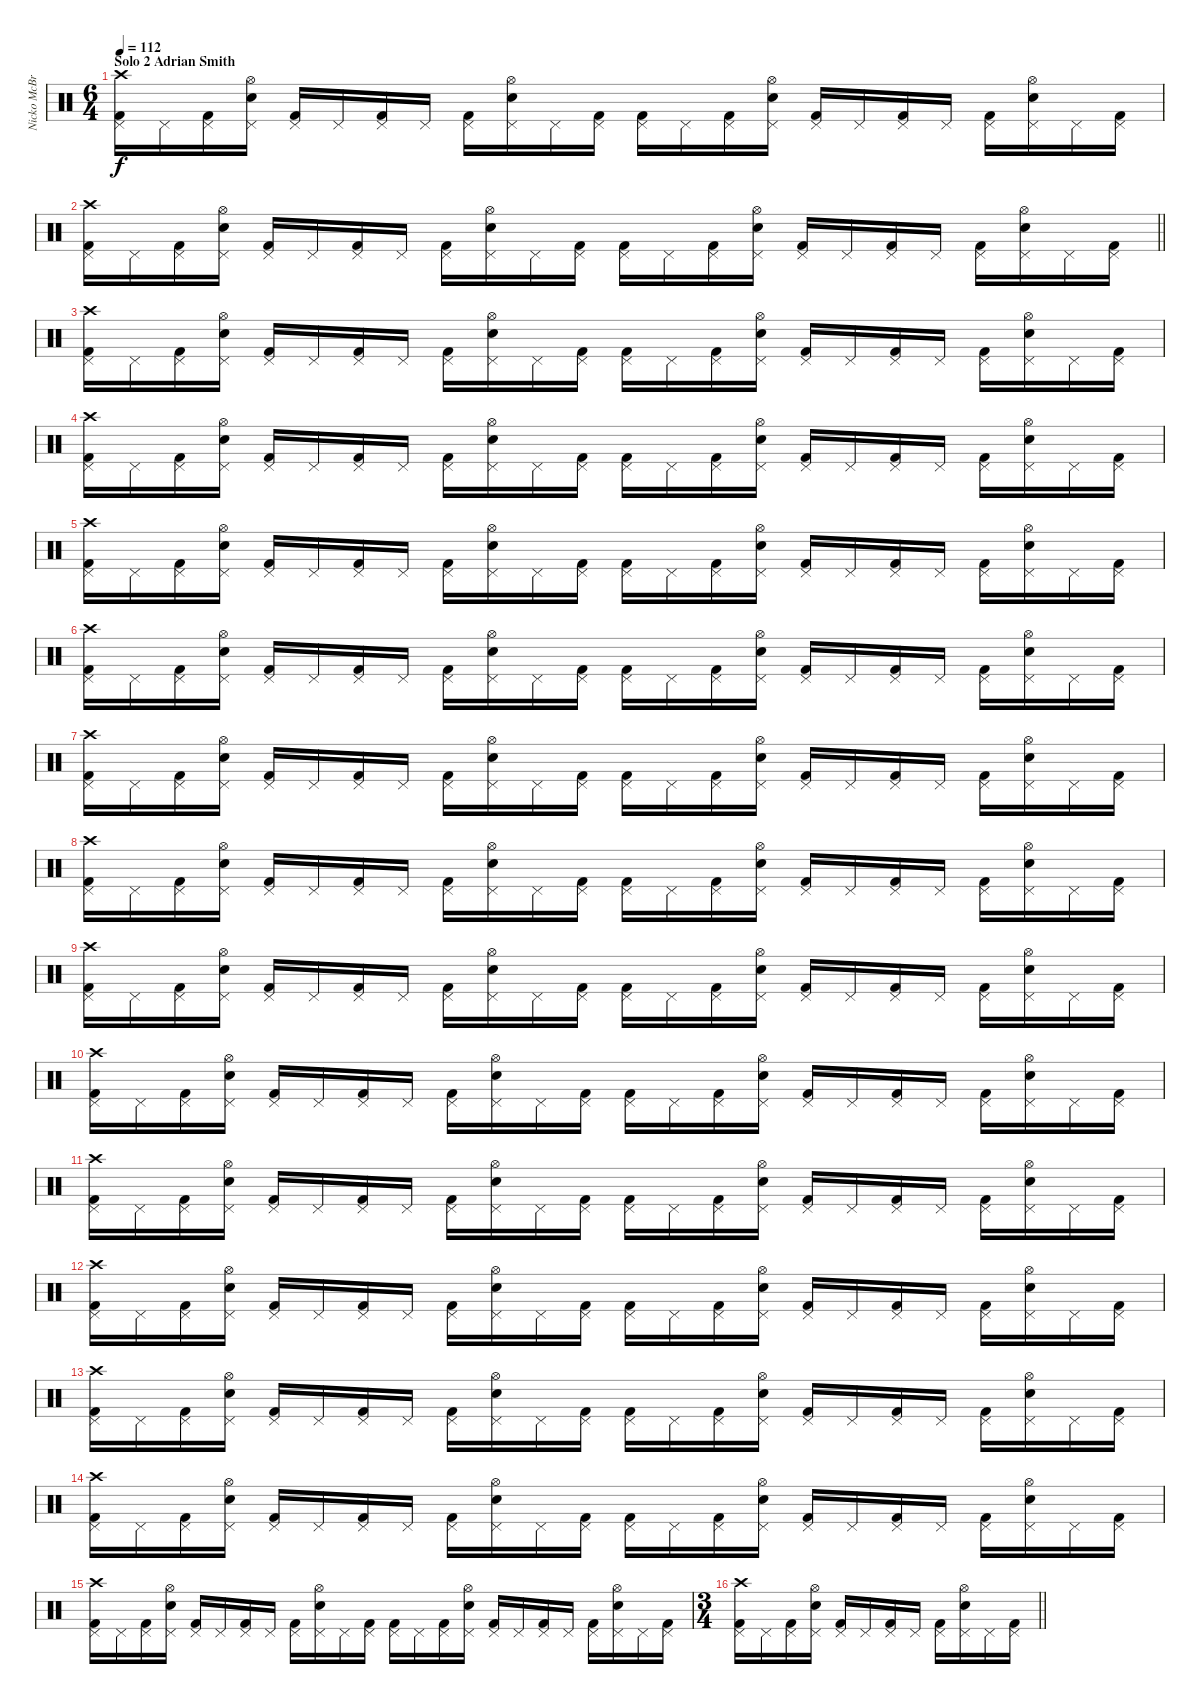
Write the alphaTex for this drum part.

\track ("Nicko McBrain" "Nicko McBr") {instrument percussion}
\staff {score}
\articulation defaults
\ts (6 4)
\section ("" "Solo 2 Adrian Smith")
\tempo 112
\clef neutral
\ks c
("Kick (hit) 2" "Pedal Hi-Hat (hit)" "Crash high (hit)").16{dy f} "Pedal Hi-Hat (hit)".16 ("Kick (hit) 2" "Pedal Hi-Hat (hit)").16 ("Snare (hit) 2" "Pedal Hi-Hat (hit)" "Hi-Hat (open)").16 ("Kick (hit) 2" "Pedal Hi-Hat (hit)").16 "Pedal Hi-Hat (hit)".16 ("Kick (hit) 2" "Pedal Hi-Hat (hit)").16 "Pedal Hi-Hat (hit)".16 ("Kick (hit) 2" "Pedal Hi-Hat (hit)").16 ("Snare (hit) 2" "Pedal Hi-Hat (hit)" "Hi-Hat (open)").16 "Pedal Hi-Hat (hit)".16 ("Kick (hit) 2" "Pedal Hi-Hat (hit)").16 ("Kick (hit) 2" "Pedal Hi-Hat (hit)").16 "Pedal Hi-Hat (hit)".16 ("Kick (hit) 2" "Pedal Hi-Hat (hit)").16 ("Snare (hit) 2" "Pedal Hi-Hat (hit)" "Hi-Hat (open)").16 ("Kick (hit) 2" "Pedal Hi-Hat (hit)").16 "Pedal Hi-Hat (hit)".16 ("Kick (hit) 2" "Pedal Hi-Hat (hit)").16 "Pedal Hi-Hat (hit)".16 ("Kick (hit) 2" "Pedal Hi-Hat (hit)").16 ("Snare (hit) 2" "Pedal Hi-Hat (hit)" "Hi-Hat (open)").16 "Pedal Hi-Hat (hit)".16 ("Kick (hit) 2" "Pedal Hi-Hat (hit)").16 |
\barLineRight lightlight
("Kick (hit) 2" "Pedal Hi-Hat (hit)" "Crash high (hit)").16 "Pedal Hi-Hat (hit)".16 ("Kick (hit) 2" "Pedal Hi-Hat (hit)").16 ("Snare (hit) 2" "Pedal Hi-Hat (hit)" "Hi-Hat (open)").16 ("Kick (hit) 2" "Pedal Hi-Hat (hit)").16 "Pedal Hi-Hat (hit)".16 ("Kick (hit) 2" "Pedal Hi-Hat (hit)").16 "Pedal Hi-Hat (hit)".16 ("Kick (hit) 2" "Pedal Hi-Hat (hit)").16 ("Snare (hit) 2" "Pedal Hi-Hat (hit)" "Hi-Hat (open)").16 "Pedal Hi-Hat (hit)".16 ("Kick (hit) 2" "Pedal Hi-Hat (hit)").16 ("Kick (hit) 2" "Pedal Hi-Hat (hit)").16 "Pedal Hi-Hat (hit)".16 ("Kick (hit) 2" "Pedal Hi-Hat (hit)").16 ("Snare (hit) 2" "Pedal Hi-Hat (hit)" "Hi-Hat (open)").16 ("Kick (hit) 2" "Pedal Hi-Hat (hit)").16 "Pedal Hi-Hat (hit)".16 ("Kick (hit) 2" "Pedal Hi-Hat (hit)").16 "Pedal Hi-Hat (hit)".16 ("Kick (hit) 2" "Pedal Hi-Hat (hit)").16 ("Snare (hit) 2" "Pedal Hi-Hat (hit)" "Hi-Hat (open)").16 "Pedal Hi-Hat (hit)".16 ("Kick (hit) 2" "Pedal Hi-Hat (hit)").16 |
("Kick (hit) 2" "Pedal Hi-Hat (hit)" "Crash high (hit)").16 "Pedal Hi-Hat (hit)".16 ("Kick (hit) 2" "Pedal Hi-Hat (hit)").16 ("Snare (hit) 2" "Pedal Hi-Hat (hit)" "Hi-Hat (open)").16 ("Kick (hit) 2" "Pedal Hi-Hat (hit)").16 "Pedal Hi-Hat (hit)".16 ("Kick (hit) 2" "Pedal Hi-Hat (hit)").16 "Pedal Hi-Hat (hit)".16 ("Kick (hit) 2" "Pedal Hi-Hat (hit)").16 ("Snare (hit) 2" "Pedal Hi-Hat (hit)" "Hi-Hat (open)").16 "Pedal Hi-Hat (hit)".16 ("Kick (hit) 2" "Pedal Hi-Hat (hit)").16 ("Kick (hit) 2" "Pedal Hi-Hat (hit)").16 "Pedal Hi-Hat (hit)".16 ("Kick (hit) 2" "Pedal Hi-Hat (hit)").16 ("Snare (hit) 2" "Pedal Hi-Hat (hit)" "Hi-Hat (open)").16 ("Kick (hit) 2" "Pedal Hi-Hat (hit)").16 "Pedal Hi-Hat (hit)".16 ("Kick (hit) 2" "Pedal Hi-Hat (hit)").16 "Pedal Hi-Hat (hit)".16 ("Kick (hit) 2" "Pedal Hi-Hat (hit)").16 ("Snare (hit) 2" "Pedal Hi-Hat (hit)" "Hi-Hat (open)").16 "Pedal Hi-Hat (hit)".16 ("Kick (hit) 2" "Pedal Hi-Hat (hit)").16 |
("Kick (hit) 2" "Pedal Hi-Hat (hit)" "Crash high (hit)").16 "Pedal Hi-Hat (hit)".16 ("Kick (hit) 2" "Pedal Hi-Hat (hit)").16 ("Snare (hit) 2" "Pedal Hi-Hat (hit)" "Hi-Hat (open)").16 ("Kick (hit) 2" "Pedal Hi-Hat (hit)").16 "Pedal Hi-Hat (hit)".16 ("Kick (hit) 2" "Pedal Hi-Hat (hit)").16 "Pedal Hi-Hat (hit)".16 ("Kick (hit) 2" "Pedal Hi-Hat (hit)").16 ("Snare (hit) 2" "Pedal Hi-Hat (hit)" "Hi-Hat (open)").16 "Pedal Hi-Hat (hit)".16 ("Kick (hit) 2" "Pedal Hi-Hat (hit)").16 ("Kick (hit) 2" "Pedal Hi-Hat (hit)").16 "Pedal Hi-Hat (hit)".16 ("Kick (hit) 2" "Pedal Hi-Hat (hit)").16 ("Snare (hit) 2" "Pedal Hi-Hat (hit)" "Hi-Hat (open)").16 ("Kick (hit) 2" "Pedal Hi-Hat (hit)").16 "Pedal Hi-Hat (hit)".16 ("Kick (hit) 2" "Pedal Hi-Hat (hit)").16 "Pedal Hi-Hat (hit)".16 ("Kick (hit) 2" "Pedal Hi-Hat (hit)").16 ("Snare (hit) 2" "Pedal Hi-Hat (hit)" "Hi-Hat (open)").16 "Pedal Hi-Hat (hit)".16 ("Kick (hit) 2" "Pedal Hi-Hat (hit)").16 |
("Kick (hit) 2" "Pedal Hi-Hat (hit)" "Crash high (hit)").16 "Pedal Hi-Hat (hit)".16 ("Kick (hit) 2" "Pedal Hi-Hat (hit)").16 ("Snare (hit) 2" "Pedal Hi-Hat (hit)" "Hi-Hat (open)").16 ("Kick (hit) 2" "Pedal Hi-Hat (hit)").16 "Pedal Hi-Hat (hit)".16 ("Kick (hit) 2" "Pedal Hi-Hat (hit)").16 "Pedal Hi-Hat (hit)".16 ("Kick (hit) 2" "Pedal Hi-Hat (hit)").16 ("Snare (hit) 2" "Pedal Hi-Hat (hit)" "Hi-Hat (open)").16 "Pedal Hi-Hat (hit)".16 ("Kick (hit) 2" "Pedal Hi-Hat (hit)").16 ("Kick (hit) 2" "Pedal Hi-Hat (hit)").16 "Pedal Hi-Hat (hit)".16 ("Kick (hit) 2" "Pedal Hi-Hat (hit)").16 ("Snare (hit) 2" "Pedal Hi-Hat (hit)" "Hi-Hat (open)").16 ("Kick (hit) 2" "Pedal Hi-Hat (hit)").16 "Pedal Hi-Hat (hit)".16 ("Kick (hit) 2" "Pedal Hi-Hat (hit)").16 "Pedal Hi-Hat (hit)".16 ("Kick (hit) 2" "Pedal Hi-Hat (hit)").16 ("Snare (hit) 2" "Pedal Hi-Hat (hit)" "Hi-Hat (open)").16 "Pedal Hi-Hat (hit)".16 ("Kick (hit) 2" "Pedal Hi-Hat (hit)").16 |
("Kick (hit) 2" "Pedal Hi-Hat (hit)" "Crash high (hit)").16 "Pedal Hi-Hat (hit)".16 ("Kick (hit) 2" "Pedal Hi-Hat (hit)").16 ("Snare (hit) 2" "Pedal Hi-Hat (hit)" "Hi-Hat (open)").16 ("Kick (hit) 2" "Pedal Hi-Hat (hit)").16 "Pedal Hi-Hat (hit)".16 ("Kick (hit) 2" "Pedal Hi-Hat (hit)").16 "Pedal Hi-Hat (hit)".16 ("Kick (hit) 2" "Pedal Hi-Hat (hit)").16 ("Snare (hit) 2" "Pedal Hi-Hat (hit)" "Hi-Hat (open)").16 "Pedal Hi-Hat (hit)".16 ("Kick (hit) 2" "Pedal Hi-Hat (hit)").16 ("Kick (hit) 2" "Pedal Hi-Hat (hit)").16 "Pedal Hi-Hat (hit)".16 ("Kick (hit) 2" "Pedal Hi-Hat (hit)").16 ("Snare (hit) 2" "Pedal Hi-Hat (hit)" "Hi-Hat (open)").16 ("Kick (hit) 2" "Pedal Hi-Hat (hit)").16 "Pedal Hi-Hat (hit)".16 ("Kick (hit) 2" "Pedal Hi-Hat (hit)").16 "Pedal Hi-Hat (hit)".16 ("Kick (hit) 2" "Pedal Hi-Hat (hit)").16 ("Snare (hit) 2" "Pedal Hi-Hat (hit)" "Hi-Hat (open)").16 "Pedal Hi-Hat (hit)".16 ("Kick (hit) 2" "Pedal Hi-Hat (hit)").16 |
("Kick (hit) 2" "Pedal Hi-Hat (hit)" "Crash high (hit)").16 "Pedal Hi-Hat (hit)".16 ("Kick (hit) 2" "Pedal Hi-Hat (hit)").16 ("Snare (hit) 2" "Pedal Hi-Hat (hit)" "Hi-Hat (open)").16 ("Kick (hit) 2" "Pedal Hi-Hat (hit)").16 "Pedal Hi-Hat (hit)".16 ("Kick (hit) 2" "Pedal Hi-Hat (hit)").16 "Pedal Hi-Hat (hit)".16 ("Kick (hit) 2" "Pedal Hi-Hat (hit)").16 ("Snare (hit) 2" "Pedal Hi-Hat (hit)" "Hi-Hat (open)").16 "Pedal Hi-Hat (hit)".16 ("Kick (hit) 2" "Pedal Hi-Hat (hit)").16 ("Kick (hit) 2" "Pedal Hi-Hat (hit)").16 "Pedal Hi-Hat (hit)".16 ("Kick (hit) 2" "Pedal Hi-Hat (hit)").16 ("Snare (hit) 2" "Pedal Hi-Hat (hit)" "Hi-Hat (open)").16 ("Kick (hit) 2" "Pedal Hi-Hat (hit)").16 "Pedal Hi-Hat (hit)".16 ("Kick (hit) 2" "Pedal Hi-Hat (hit)").16 "Pedal Hi-Hat (hit)".16 ("Kick (hit) 2" "Pedal Hi-Hat (hit)").16 ("Snare (hit) 2" "Pedal Hi-Hat (hit)" "Hi-Hat (open)").16 "Pedal Hi-Hat (hit)".16 ("Kick (hit) 2" "Pedal Hi-Hat (hit)").16 |
("Kick (hit) 2" "Pedal Hi-Hat (hit)" "Crash high (hit)").16 "Pedal Hi-Hat (hit)".16 ("Kick (hit) 2" "Pedal Hi-Hat (hit)").16 ("Snare (hit) 2" "Pedal Hi-Hat (hit)" "Hi-Hat (open)").16 ("Kick (hit) 2" "Pedal Hi-Hat (hit)").16 "Pedal Hi-Hat (hit)".16 ("Kick (hit) 2" "Pedal Hi-Hat (hit)").16 "Pedal Hi-Hat (hit)".16 ("Kick (hit) 2" "Pedal Hi-Hat (hit)").16 ("Snare (hit) 2" "Pedal Hi-Hat (hit)" "Hi-Hat (open)").16 "Pedal Hi-Hat (hit)".16 ("Kick (hit) 2" "Pedal Hi-Hat (hit)").16 ("Kick (hit) 2" "Pedal Hi-Hat (hit)").16 "Pedal Hi-Hat (hit)".16 ("Kick (hit) 2" "Pedal Hi-Hat (hit)").16 ("Snare (hit) 2" "Pedal Hi-Hat (hit)" "Hi-Hat (open)").16 ("Kick (hit) 2" "Pedal Hi-Hat (hit)").16 "Pedal Hi-Hat (hit)".16 ("Kick (hit) 2" "Pedal Hi-Hat (hit)").16 "Pedal Hi-Hat (hit)".16 ("Kick (hit) 2" "Pedal Hi-Hat (hit)").16 ("Snare (hit) 2" "Pedal Hi-Hat (hit)" "Hi-Hat (open)").16 "Pedal Hi-Hat (hit)".16 ("Kick (hit) 2" "Pedal Hi-Hat (hit)").16 |
("Kick (hit) 2" "Pedal Hi-Hat (hit)" "Crash high (hit)").16 "Pedal Hi-Hat (hit)".16 ("Kick (hit) 2" "Pedal Hi-Hat (hit)").16 ("Snare (hit) 2" "Pedal Hi-Hat (hit)" "Hi-Hat (open)").16 ("Kick (hit) 2" "Pedal Hi-Hat (hit)").16 "Pedal Hi-Hat (hit)".16 ("Kick (hit) 2" "Pedal Hi-Hat (hit)").16 "Pedal Hi-Hat (hit)".16 ("Kick (hit) 2" "Pedal Hi-Hat (hit)").16 ("Snare (hit) 2" "Pedal Hi-Hat (hit)" "Hi-Hat (open)").16 "Pedal Hi-Hat (hit)".16 ("Kick (hit) 2" "Pedal Hi-Hat (hit)").16 ("Kick (hit) 2" "Pedal Hi-Hat (hit)").16 "Pedal Hi-Hat (hit)".16 ("Kick (hit) 2" "Pedal Hi-Hat (hit)").16 ("Snare (hit) 2" "Pedal Hi-Hat (hit)" "Hi-Hat (open)").16 ("Kick (hit) 2" "Pedal Hi-Hat (hit)").16 "Pedal Hi-Hat (hit)".16 ("Kick (hit) 2" "Pedal Hi-Hat (hit)").16 "Pedal Hi-Hat (hit)".16 ("Kick (hit) 2" "Pedal Hi-Hat (hit)").16 ("Snare (hit) 2" "Pedal Hi-Hat (hit)" "Hi-Hat (open)").16 "Pedal Hi-Hat (hit)".16 ("Kick (hit) 2" "Pedal Hi-Hat (hit)").16 |
("Kick (hit) 2" "Pedal Hi-Hat (hit)" "Crash high (hit)").16 "Pedal Hi-Hat (hit)".16 ("Kick (hit) 2" "Pedal Hi-Hat (hit)").16 ("Snare (hit) 2" "Pedal Hi-Hat (hit)" "Hi-Hat (open)").16 ("Kick (hit) 2" "Pedal Hi-Hat (hit)").16 "Pedal Hi-Hat (hit)".16 ("Kick (hit) 2" "Pedal Hi-Hat (hit)").16 "Pedal Hi-Hat (hit)".16 ("Kick (hit) 2" "Pedal Hi-Hat (hit)").16 ("Snare (hit) 2" "Pedal Hi-Hat (hit)" "Hi-Hat (open)").16 "Pedal Hi-Hat (hit)".16 ("Kick (hit) 2" "Pedal Hi-Hat (hit)").16 ("Kick (hit) 2" "Pedal Hi-Hat (hit)").16 "Pedal Hi-Hat (hit)".16 ("Kick (hit) 2" "Pedal Hi-Hat (hit)").16 ("Snare (hit) 2" "Pedal Hi-Hat (hit)" "Hi-Hat (open)").16 ("Kick (hit) 2" "Pedal Hi-Hat (hit)").16 "Pedal Hi-Hat (hit)".16 ("Kick (hit) 2" "Pedal Hi-Hat (hit)").16 "Pedal Hi-Hat (hit)".16 ("Kick (hit) 2" "Pedal Hi-Hat (hit)").16 ("Snare (hit) 2" "Pedal Hi-Hat (hit)" "Hi-Hat (open)").16 "Pedal Hi-Hat (hit)".16 ("Kick (hit) 2" "Pedal Hi-Hat (hit)").16 |
("Kick (hit) 2" "Pedal Hi-Hat (hit)" "Crash high (hit)").16 "Pedal Hi-Hat (hit)".16 ("Kick (hit) 2" "Pedal Hi-Hat (hit)").16 ("Snare (hit) 2" "Pedal Hi-Hat (hit)" "Hi-Hat (open)").16 ("Kick (hit) 2" "Pedal Hi-Hat (hit)").16 "Pedal Hi-Hat (hit)".16 ("Kick (hit) 2" "Pedal Hi-Hat (hit)").16 "Pedal Hi-Hat (hit)".16 ("Kick (hit) 2" "Pedal Hi-Hat (hit)").16 ("Snare (hit) 2" "Pedal Hi-Hat (hit)" "Hi-Hat (open)").16 "Pedal Hi-Hat (hit)".16 ("Kick (hit) 2" "Pedal Hi-Hat (hit)").16 ("Kick (hit) 2" "Pedal Hi-Hat (hit)").16 "Pedal Hi-Hat (hit)".16 ("Kick (hit) 2" "Pedal Hi-Hat (hit)").16 ("Snare (hit) 2" "Pedal Hi-Hat (hit)" "Hi-Hat (open)").16 ("Kick (hit) 2" "Pedal Hi-Hat (hit)").16 "Pedal Hi-Hat (hit)".16 ("Kick (hit) 2" "Pedal Hi-Hat (hit)").16 "Pedal Hi-Hat (hit)".16 ("Kick (hit) 2" "Pedal Hi-Hat (hit)").16 ("Snare (hit) 2" "Pedal Hi-Hat (hit)" "Hi-Hat (open)").16 "Pedal Hi-Hat (hit)".16 ("Kick (hit) 2" "Pedal Hi-Hat (hit)").16 |
("Kick (hit) 2" "Pedal Hi-Hat (hit)" "Crash high (hit)").16 "Pedal Hi-Hat (hit)".16 ("Kick (hit) 2" "Pedal Hi-Hat (hit)").16 ("Snare (hit) 2" "Pedal Hi-Hat (hit)" "Hi-Hat (open)").16 ("Kick (hit) 2" "Pedal Hi-Hat (hit)").16 "Pedal Hi-Hat (hit)".16 ("Kick (hit) 2" "Pedal Hi-Hat (hit)").16 "Pedal Hi-Hat (hit)".16 ("Kick (hit) 2" "Pedal Hi-Hat (hit)").16 ("Snare (hit) 2" "Pedal Hi-Hat (hit)" "Hi-Hat (open)").16 "Pedal Hi-Hat (hit)".16 ("Kick (hit) 2" "Pedal Hi-Hat (hit)").16 ("Kick (hit) 2" "Pedal Hi-Hat (hit)").16 "Pedal Hi-Hat (hit)".16 ("Kick (hit) 2" "Pedal Hi-Hat (hit)").16 ("Snare (hit) 2" "Pedal Hi-Hat (hit)" "Hi-Hat (open)").16 ("Kick (hit) 2" "Pedal Hi-Hat (hit)").16 "Pedal Hi-Hat (hit)".16 ("Kick (hit) 2" "Pedal Hi-Hat (hit)").16 "Pedal Hi-Hat (hit)".16 ("Kick (hit) 2" "Pedal Hi-Hat (hit)").16 ("Snare (hit) 2" "Pedal Hi-Hat (hit)" "Hi-Hat (open)").16 "Pedal Hi-Hat (hit)".16 ("Kick (hit) 2" "Pedal Hi-Hat (hit)").16 |
("Kick (hit) 2" "Pedal Hi-Hat (hit)" "Crash high (hit)").16 "Pedal Hi-Hat (hit)".16 ("Kick (hit) 2" "Pedal Hi-Hat (hit)").16 ("Snare (hit) 2" "Pedal Hi-Hat (hit)" "Hi-Hat (open)").16 ("Kick (hit) 2" "Pedal Hi-Hat (hit)").16 "Pedal Hi-Hat (hit)".16 ("Kick (hit) 2" "Pedal Hi-Hat (hit)").16 "Pedal Hi-Hat (hit)".16 ("Kick (hit) 2" "Pedal Hi-Hat (hit)").16 ("Snare (hit) 2" "Pedal Hi-Hat (hit)" "Hi-Hat (open)").16 "Pedal Hi-Hat (hit)".16 ("Kick (hit) 2" "Pedal Hi-Hat (hit)").16 ("Kick (hit) 2" "Pedal Hi-Hat (hit)").16 "Pedal Hi-Hat (hit)".16 ("Kick (hit) 2" "Pedal Hi-Hat (hit)").16 ("Snare (hit) 2" "Pedal Hi-Hat (hit)" "Hi-Hat (open)").16 ("Kick (hit) 2" "Pedal Hi-Hat (hit)").16 "Pedal Hi-Hat (hit)".16 ("Kick (hit) 2" "Pedal Hi-Hat (hit)").16 "Pedal Hi-Hat (hit)".16 ("Kick (hit) 2" "Pedal Hi-Hat (hit)").16 ("Snare (hit) 2" "Pedal Hi-Hat (hit)" "Hi-Hat (open)").16 "Pedal Hi-Hat (hit)".16 ("Kick (hit) 2" "Pedal Hi-Hat (hit)").16 |
("Kick (hit) 2" "Pedal Hi-Hat (hit)" "Crash high (hit)").16 "Pedal Hi-Hat (hit)".16 ("Kick (hit) 2" "Pedal Hi-Hat (hit)").16 ("Snare (hit) 2" "Pedal Hi-Hat (hit)" "Hi-Hat (open)").16 ("Kick (hit) 2" "Pedal Hi-Hat (hit)").16 "Pedal Hi-Hat (hit)".16 ("Kick (hit) 2" "Pedal Hi-Hat (hit)").16 "Pedal Hi-Hat (hit)".16 ("Kick (hit) 2" "Pedal Hi-Hat (hit)").16 ("Snare (hit) 2" "Pedal Hi-Hat (hit)" "Hi-Hat (open)").16 "Pedal Hi-Hat (hit)".16 ("Kick (hit) 2" "Pedal Hi-Hat (hit)").16 ("Kick (hit) 2" "Pedal Hi-Hat (hit)").16 "Pedal Hi-Hat (hit)".16 ("Kick (hit) 2" "Pedal Hi-Hat (hit)").16 ("Snare (hit) 2" "Pedal Hi-Hat (hit)" "Hi-Hat (open)").16 ("Kick (hit) 2" "Pedal Hi-Hat (hit)").16 "Pedal Hi-Hat (hit)".16 ("Kick (hit) 2" "Pedal Hi-Hat (hit)").16 "Pedal Hi-Hat (hit)".16 ("Kick (hit) 2" "Pedal Hi-Hat (hit)").16 ("Snare (hit) 2" "Pedal Hi-Hat (hit)" "Hi-Hat (open)").16 "Pedal Hi-Hat (hit)".16 ("Kick (hit) 2" "Pedal Hi-Hat (hit)").16 |
("Kick (hit) 2" "Pedal Hi-Hat (hit)" "Crash high (hit)").16 "Pedal Hi-Hat (hit)".16 ("Kick (hit) 2" "Pedal Hi-Hat (hit)").16 ("Snare (hit) 2" "Pedal Hi-Hat (hit)" "Hi-Hat (open)").16 ("Kick (hit) 2" "Pedal Hi-Hat (hit)").16 "Pedal Hi-Hat (hit)".16 ("Kick (hit) 2" "Pedal Hi-Hat (hit)").16 "Pedal Hi-Hat (hit)".16 ("Kick (hit) 2" "Pedal Hi-Hat (hit)").16 ("Snare (hit) 2" "Pedal Hi-Hat (hit)" "Hi-Hat (open)").16 "Pedal Hi-Hat (hit)".16 ("Kick (hit) 2" "Pedal Hi-Hat (hit)").16 ("Kick (hit) 2" "Pedal Hi-Hat (hit)").16 "Pedal Hi-Hat (hit)".16 ("Kick (hit) 2" "Pedal Hi-Hat (hit)").16 ("Snare (hit) 2" "Pedal Hi-Hat (hit)" "Hi-Hat (open)").16 ("Kick (hit) 2" "Pedal Hi-Hat (hit)").16 "Pedal Hi-Hat (hit)".16 ("Kick (hit) 2" "Pedal Hi-Hat (hit)").16 "Pedal Hi-Hat (hit)".16 ("Kick (hit) 2" "Pedal Hi-Hat (hit)").16 ("Snare (hit) 2" "Pedal Hi-Hat (hit)" "Hi-Hat (open)").16 "Pedal Hi-Hat (hit)".16 ("Kick (hit) 2" "Pedal Hi-Hat (hit)").16 |
\ts (3 4)
\barLineRight lightlight
("Kick (hit) 2" "Pedal Hi-Hat (hit)" "Crash high (hit)").16 "Pedal Hi-Hat (hit)".16 ("Kick (hit) 2" "Pedal Hi-Hat (hit)").16 ("Snare (hit) 2" "Pedal Hi-Hat (hit)" "Hi-Hat (open)").16 ("Kick (hit) 2" "Pedal Hi-Hat (hit)").16 "Pedal Hi-Hat (hit)".16 ("Kick (hit) 2" "Pedal Hi-Hat (hit)").16 "Pedal Hi-Hat (hit)".16 ("Kick (hit) 2" "Pedal Hi-Hat (hit)").16 ("Snare (hit) 2" "Pedal Hi-Hat (hit)" "Hi-Hat (open)").16 "Pedal Hi-Hat (hit)".16 ("Kick (hit) 2" "Pedal Hi-Hat (hit)").16
